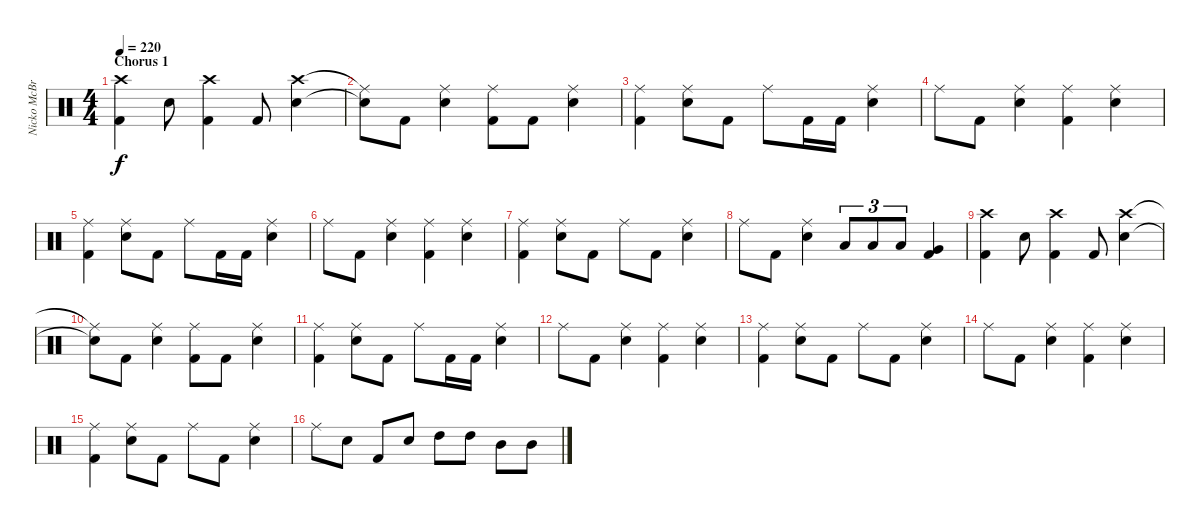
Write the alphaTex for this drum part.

\track ("Nicko McBrain" "Nicko McBr") {instrument percussion}
\staff {score}
\articulation defaults
\ts (4 4)
\section ("" "Chorus 1")
\tempo 220
\clef neutral
\ks c
("Crash high (hit)" "Kick (hit) 2").4{dy f} "Electric Snare (hit)".8 ("Crash high (hit)" "Kick (hit) 2").4 "Kick (hit) 2".8 ("Crash high (hit)" "Electric Snare (hit)").4 |
("Ride (middle)"{t} "Snare (hit)"{t}).8 "Kick (hit) 2".8 ("Ride (middle)" "Electric Snare (hit)").4 ("Ride (middle)" "Kick (hit) 2").8 "Kick (hit) 2".8 ("Ride (middle)" "Electric Snare (hit)").4 |
("Ride (middle)" "Kick (hit) 2").4 ("Ride (middle)" "Electric Snare (hit)").8 "Kick (hit) 2".8 "Ride (middle)".8 "Kick (hit) 2".16 "Kick (hit) 2".16 ("Ride (middle)" "Electric Snare (hit)").4 |
"Ride (middle)".8 "Kick (hit) 2".8 ("Ride (middle)" "Electric Snare (hit)").4 ("Ride (middle)" "Kick (hit) 2").4 ("Ride (middle)" "Electric Snare (hit)").4 |
("Ride (middle)" "Kick (hit) 2").4 ("Ride (middle)" "Electric Snare (hit)").8 "Kick (hit) 2".8 "Ride (middle)".8 "Kick (hit) 2".16 "Kick (hit) 2".16 ("Ride (middle)" "Electric Snare (hit)").4 |
"Ride (middle)".8 "Kick (hit) 2".8 ("Ride (middle)" "Electric Snare (hit)").4 ("Ride (middle)" "Kick (hit) 2").4 ("Ride (middle)" "Electric Snare (hit)").4 |
("Ride (middle)" "Kick (hit) 2").4 ("Ride (middle)" "Electric Snare (hit)").8 "Kick (hit) 2".8 "Ride (middle)".8 "Kick (hit) 2".8 ("Ride (middle)" "Electric Snare (hit)").4 |
"Ride (middle)".8 "Kick (hit) 2".8 ("Ride (middle)" "Electric Snare (hit)").4 "Low Tom (hit)".8{tu (3 2)} "Low Tom (hit)".8{tu (3 2)} "Low Tom (hit)".8{tu (3 2)} ("Very Low Tom (hit)" "Kick (hit) 2").4 |
("Crash high (hit)" "Kick (hit) 2").4 "Electric Snare (hit)".8 ("Crash high (hit)" "Kick (hit) 2").4 "Kick (hit) 2".8 ("Crash high (hit)" "Electric Snare (hit)").4 |
("Ride (middle)"{t} "Snare (hit)"{t}).8 "Kick (hit) 2".8 ("Ride (middle)" "Electric Snare (hit)").4 ("Ride (middle)" "Kick (hit) 2").8 "Kick (hit) 2".8 ("Ride (middle)" "Electric Snare (hit)").4 |
("Ride (middle)" "Kick (hit) 2").4 ("Ride (middle)" "Electric Snare (hit)").8 "Kick (hit) 2".8 "Ride (middle)".8 "Kick (hit) 2".16 "Kick (hit) 2".16 ("Ride (middle)" "Electric Snare (hit)").4 |
"Ride (middle)".8 "Kick (hit) 2".8 ("Ride (middle)" "Electric Snare (hit)").4 ("Ride (middle)" "Kick (hit) 2").4 ("Ride (middle)" "Electric Snare (hit)").4 |
("Ride (middle)" "Kick (hit) 2").4 ("Ride (middle)" "Electric Snare (hit)").8 "Kick (hit) 2".8 "Ride (middle)".8 "Kick (hit) 2".8 ("Ride (middle)" "Electric Snare (hit)").4 |
"Ride (middle)".8 "Kick (hit) 2".8 ("Ride (middle)" "Electric Snare (hit)").4 ("Ride (middle)" "Kick (hit) 2").4 ("Ride (middle)" "Electric Snare (hit)").4 |
("Ride (middle)" "Kick (hit) 2").4 ("Ride (middle)" "Electric Snare (hit)").8 "Kick (hit) 2".8 "Ride (middle)".8 "Kick (hit) 2".8 ("Ride (middle)" "Electric Snare (hit)").4 |
"Ride (middle)".8 "Electric Snare (hit)".8 "Kick (hit) 2".8 "Electric Snare (hit)".8 "High Tom (hit)".8 "High Tom (hit)".8 "Mid Tom (hit)".8 "Mid Tom (hit)".8
